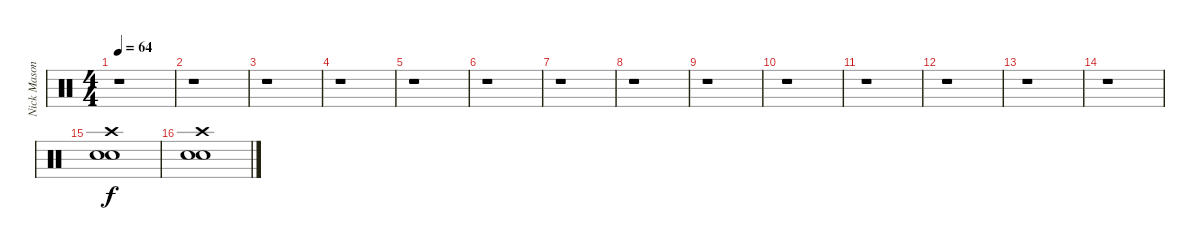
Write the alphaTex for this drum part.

\track ("Nick Mason" "Nick Mason") {instrument percussion}
\staff {score}
\articulation defaults
\ts (4 4)
\tempo 64
\clef neutral
\ks c
r.1{dy f} |
r.1 |
r.1 |
r.1 |
r.1 |
r.1 |
r.1 |
r.1 |
r.1 |
r.1 |
r.1 |
r.1 |
r.1 |
r.1 |
("Electric Snare (hit)" "Crash high (hit)" "Snare (hit) 2").1 |
("Electric Snare (hit)" "Crash high (hit)" "Snare (hit) 2").1
